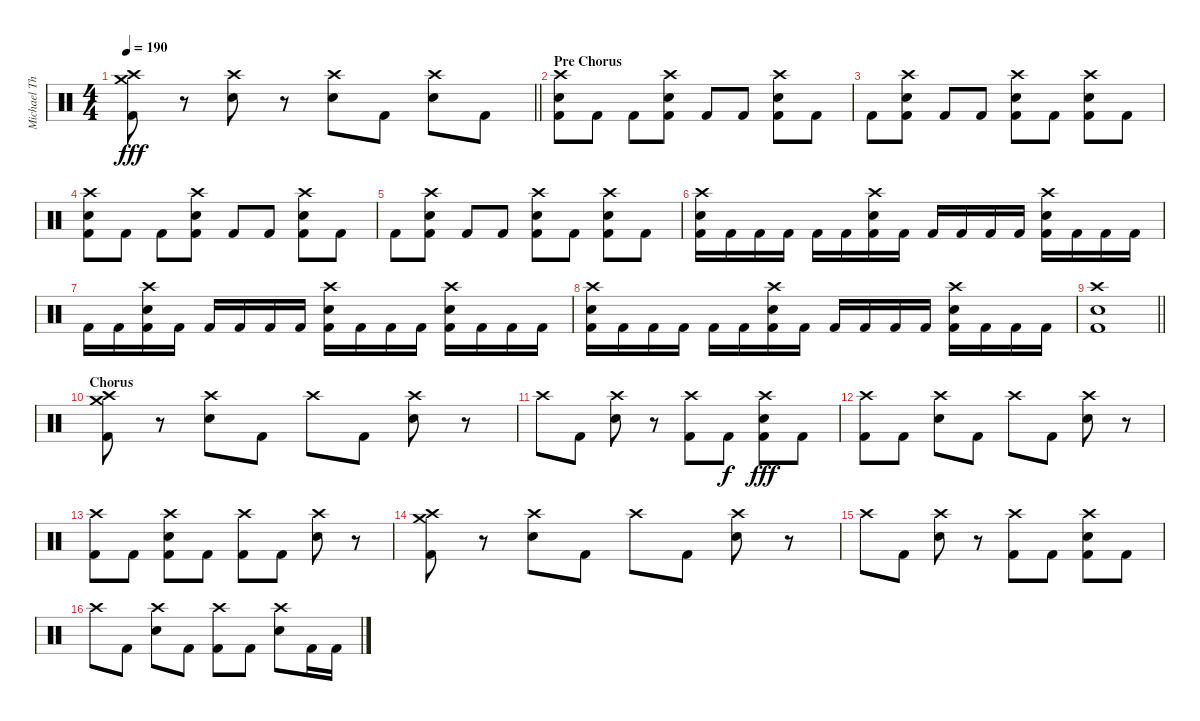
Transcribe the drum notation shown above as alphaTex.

\track ("Michael Thomas Жжёт!" "Michael Th") {instrument percussion}
\staff {score}
\articulation defaults
\ts (4 4)
\tempo 190
\clef neutral
\barLineRight lightlight
\ks c
("Crash high (hit)" "Crash medium (hit)" "Kick (hit) 2").8{dy fff} r.8 ("Crash high (hit)" "Electric Snare (hit)").8 r.8 ("Crash high (hit)" "Electric Snare (hit)").8 "Kick (hit) 2".8 ("Crash high (hit)" "Electric Snare (hit)").8 "Kick (hit) 2".8 |
\section ("" "Pre Chorus")
("Crash high (hit)" "Electric Snare (hit)" "Kick (hit) 2").8 "Kick (hit) 2".8 "Kick (hit) 2".8 ("Crash high (hit)" "Electric Snare (hit)" "Kick (hit) 2").8 "Kick (hit) 2".8 "Kick (hit) 2".8 ("Crash high (hit)" "Electric Snare (hit)" "Kick (hit) 2").8 "Kick (hit) 2".8 |
"Kick (hit) 2".8 ("Crash high (hit)" "Electric Snare (hit)" "Kick (hit) 2").8 "Kick (hit) 2".8 "Kick (hit) 2".8 ("Crash high (hit)" "Electric Snare (hit)" "Kick (hit) 2").8 "Kick (hit) 2".8 ("Crash high (hit)" "Electric Snare (hit)" "Kick (hit) 2").8 "Kick (hit) 2".8 |
("Crash high (hit)" "Electric Snare (hit)" "Kick (hit) 2").8 "Kick (hit) 2".8 "Kick (hit) 2".8 ("Crash high (hit)" "Electric Snare (hit)" "Kick (hit) 2").8 "Kick (hit) 2".8 "Kick (hit) 2".8 ("Crash high (hit)" "Electric Snare (hit)" "Kick (hit) 2").8 "Kick (hit) 2".8 |
"Kick (hit) 2".8 ("Crash high (hit)" "Electric Snare (hit)" "Kick (hit) 2").8 "Kick (hit) 2".8 "Kick (hit) 2".8 ("Crash high (hit)" "Electric Snare (hit)" "Kick (hit) 2").8 "Kick (hit) 2".8 ("Crash high (hit)" "Electric Snare (hit)" "Kick (hit) 2").8 "Kick (hit) 2".8 |
("Crash high (hit)" "Electric Snare (hit)" "Kick (hit) 2").16 "Kick (hit) 2".16 "Kick (hit) 2".16 "Kick (hit) 2".16 "Kick (hit) 2".16 "Kick (hit) 2".16 ("Crash high (hit)" "Electric Snare (hit)" "Kick (hit) 2").16 "Kick (hit) 2".16 "Kick (hit) 2".16 "Kick (hit) 2".16 "Kick (hit) 2".16 "Kick (hit) 2".16 ("Crash high (hit)" "Electric Snare (hit)" "Kick (hit) 2").16 "Kick (hit) 2".16 "Kick (hit) 2".16 "Kick (hit) 2".16 |
"Kick (hit) 2".16 "Kick (hit) 2".16 ("Crash high (hit)" "Electric Snare (hit)" "Kick (hit) 2").16 "Kick (hit) 2".16 "Kick (hit) 2".16 "Kick (hit) 2".16 "Kick (hit) 2".16 "Kick (hit) 2".16 ("Crash high (hit)" "Electric Snare (hit)" "Kick (hit) 2").16 "Kick (hit) 2".16 "Kick (hit) 2".16 "Kick (hit) 2".16 ("Crash high (hit)" "Electric Snare (hit)" "Kick (hit) 2").16 "Kick (hit) 2".16 "Kick (hit) 2".16 "Kick (hit) 2".16 |
("Crash high (hit)" "Electric Snare (hit)" "Kick (hit) 2").16 "Kick (hit) 2".16 "Kick (hit) 2".16 "Kick (hit) 2".16 "Kick (hit) 2".16 "Kick (hit) 2".16 ("Crash high (hit)" "Electric Snare (hit)" "Kick (hit) 2").16 "Kick (hit) 2".16 "Kick (hit) 2".16 "Kick (hit) 2".16 "Kick (hit) 2".16 "Kick (hit) 2".16 ("Crash high (hit)" "Electric Snare (hit)" "Kick (hit) 2").16 "Kick (hit) 2".16 "Kick (hit) 2".16 "Kick (hit) 2".16 |
\barLineRight lightlight
("Crash high (hit)" "Electric Snare (hit)" "Kick (hit) 2").1 |
\section ("" "Chorus")
("Crash high (hit)" "Crash medium (hit)" "Kick (hit) 2").8 r.8 ("Crash high (hit)" "Electric Snare (hit)").8 "Kick (hit) 2".8 "Crash high (hit)".8 "Kick (hit) 2".8 ("Crash high (hit)" "Electric Snare (hit)").8 r.8 |
"Crash high (hit)".8 "Kick (hit) 2".8 ("Crash high (hit)" "Electric Snare (hit)").8 r.8 ("Crash high (hit)" "Kick (hit) 2").8 "Kick (hit) 2".8{dy f} ("Crash high (hit)" "Electric Snare (hit)" "Kick (hit) 2").8{dy fff} "Kick (hit) 2".8 |
("Crash high (hit)" "Kick (hit) 2").8 "Kick (hit) 2".8 ("Crash high (hit)" "Electric Snare (hit)").8 "Kick (hit) 2".8 "Crash high (hit)".8 "Kick (hit) 2".8 ("Crash high (hit)" "Electric Snare (hit)").8 r.8 |
("Crash high (hit)" "Kick (hit) 2").8 "Kick (hit) 2".8 ("Crash high (hit)" "Electric Snare (hit)" "Kick (hit) 2").8 "Kick (hit) 2".8 ("Crash high (hit)" "Kick (hit) 2").8 "Kick (hit) 2".8 ("Crash high (hit)" "Electric Snare (hit)").8 r.8 |
("Crash high (hit)" "Crash medium (hit)" "Kick (hit) 2").8 r.8 ("Crash high (hit)" "Electric Snare (hit)").8 "Kick (hit) 2".8 "Crash high (hit)".8 "Kick (hit) 2".8 ("Crash high (hit)" "Electric Snare (hit)").8 r.8 |
"Crash high (hit)".8 "Kick (hit) 2".8 ("Crash high (hit)" "Electric Snare (hit)").8 r.8 ("Crash high (hit)" "Kick (hit) 2").8 "Kick (hit) 2".8 ("Crash high (hit)" "Electric Snare (hit)" "Kick (hit) 2").8 "Kick (hit) 2".8 |
"Crash high (hit)".8 "Kick (hit) 2".8 ("Crash high (hit)" "Electric Snare (hit)").8 "Kick (hit) 2".8 ("Crash high (hit)" "Kick (hit) 2").8 "Kick (hit) 2".8 ("Crash high (hit)" "Electric Snare (hit)").8 "Kick (hit) 2".16 "Kick (hit) 2".16
